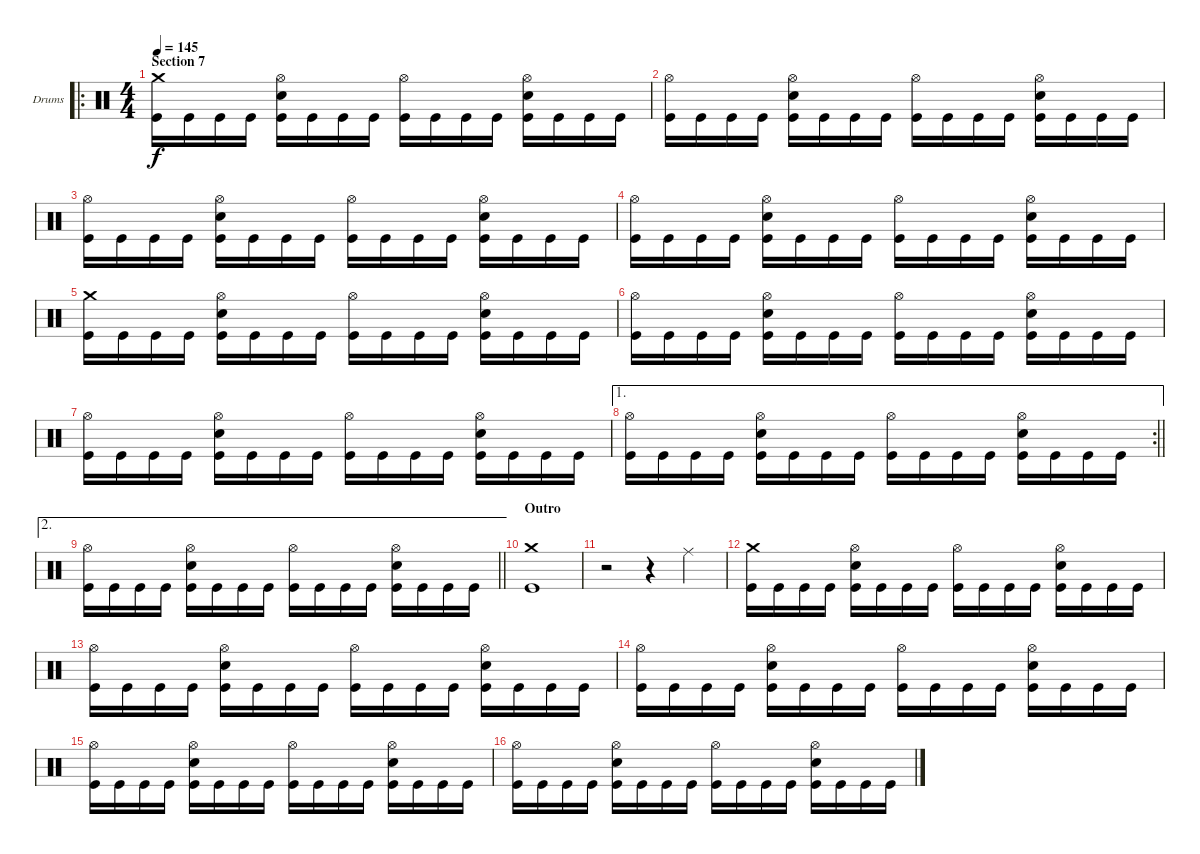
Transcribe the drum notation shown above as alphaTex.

\defaultSystemsLayout 4
\bracketExtendMode groupsimilarinstruments
\firstSystemTrackNameOrientation horizontal
\otherSystemsTrackNameOrientation horizontal
\track ("Drums" "Drums") {instrument percussion}
\staff {score}
\articulation defaults
\ro
\ts (4 4)
\section ("" "Section 7")
\tempo 145
\clef neutral
\ks c
("Kick (hit)" "Crash medium (hit)").16{dy f} "Kick (hit)".16 "Kick (hit)".16 "Kick (hit)".16 ("Snare (hit) 2" "Hi-Hat (open)" "Kick (hit)").16 "Kick (hit)".16 "Kick (hit)".16 "Kick (hit)".16 ("Kick (hit)" "Hi-Hat (open)").16 "Kick (hit)".16 "Kick (hit)".16 "Kick (hit)".16 ("Snare (hit) 2" "Hi-Hat (open)" "Kick (hit)").16 "Kick (hit)".16 "Kick (hit)".16 "Kick (hit)".16 |
("Kick (hit)" "Hi-Hat (open)").16 "Kick (hit)".16 "Kick (hit)".16 "Kick (hit)".16 ("Snare (hit) 2" "Hi-Hat (open)" "Kick (hit)").16 "Kick (hit)".16 "Kick (hit)".16 "Kick (hit)".16 ("Kick (hit)" "Hi-Hat (open)").16 "Kick (hit)".16 "Kick (hit)".16 "Kick (hit)".16 ("Snare (hit) 2" "Hi-Hat (open)" "Kick (hit)").16 "Kick (hit)".16 "Kick (hit)".16 "Kick (hit)".16 |
("Kick (hit)" "Hi-Hat (open)").16 "Kick (hit)".16 "Kick (hit)".16 "Kick (hit)".16 ("Snare (hit) 2" "Hi-Hat (open)" "Kick (hit)").16 "Kick (hit)".16 "Kick (hit)".16 "Kick (hit)".16 ("Kick (hit)" "Hi-Hat (open)").16 "Kick (hit)".16 "Kick (hit)".16 "Kick (hit)".16 ("Snare (hit) 2" "Hi-Hat (open)" "Kick (hit)").16 "Kick (hit)".16 "Kick (hit)".16 "Kick (hit)".16 |
("Kick (hit)" "Hi-Hat (open)").16 "Kick (hit)".16 "Kick (hit)".16 "Kick (hit)".16 ("Snare (hit) 2" "Hi-Hat (open)" "Kick (hit)").16 "Kick (hit)".16 "Kick (hit)".16 "Kick (hit)".16 ("Kick (hit)" "Hi-Hat (open)").16 "Kick (hit)".16 "Kick (hit)".16 "Kick (hit)".16 ("Snare (hit) 2" "Hi-Hat (open)" "Kick (hit)").16 "Kick (hit)".16 "Kick (hit)".16 "Kick (hit)".16 |
("Kick (hit)" "Crash medium (hit)").16 "Kick (hit)".16 "Kick (hit)".16 "Kick (hit)".16 ("Snare (hit) 2" "Hi-Hat (open)" "Kick (hit)").16 "Kick (hit)".16 "Kick (hit)".16 "Kick (hit)".16 ("Kick (hit)" "Hi-Hat (open)").16 "Kick (hit)".16 "Kick (hit)".16 "Kick (hit)".16 ("Snare (hit) 2" "Hi-Hat (open)" "Kick (hit)").16 "Kick (hit)".16 "Kick (hit)".16 "Kick (hit)".16 |
("Kick (hit)" "Hi-Hat (open)").16 "Kick (hit)".16 "Kick (hit)".16 "Kick (hit)".16 ("Snare (hit) 2" "Hi-Hat (open)" "Kick (hit)").16 "Kick (hit)".16 "Kick (hit)".16 "Kick (hit)".16 ("Kick (hit)" "Hi-Hat (open)").16 "Kick (hit)".16 "Kick (hit)".16 "Kick (hit)".16 ("Snare (hit) 2" "Hi-Hat (open)" "Kick (hit)").16 "Kick (hit)".16 "Kick (hit)".16 "Kick (hit)".16 |
("Kick (hit)" "Hi-Hat (open)").16 "Kick (hit)".16 "Kick (hit)".16 "Kick (hit)".16 ("Snare (hit) 2" "Hi-Hat (open)" "Kick (hit)").16 "Kick (hit)".16 "Kick (hit)".16 "Kick (hit)".16 ("Kick (hit)" "Hi-Hat (open)").16 "Kick (hit)".16 "Kick (hit)".16 "Kick (hit)".16 ("Snare (hit) 2" "Hi-Hat (open)" "Kick (hit)").16 "Kick (hit)".16 "Kick (hit)".16 "Kick (hit)".16 |
\ae 1
\rc 2
\barLineRight lightlight
("Kick (hit)" "Hi-Hat (open)").16 "Kick (hit)".16 "Kick (hit)".16 "Kick (hit)".16 ("Snare (hit) 2" "Hi-Hat (open)" "Kick (hit)").16 "Kick (hit)".16 "Kick (hit)".16 "Kick (hit)".16 ("Kick (hit)" "Hi-Hat (open)").16 "Kick (hit)".16 "Kick (hit)".16 "Kick (hit)".16 ("Snare (hit) 2" "Hi-Hat (open)" "Kick (hit)").16 "Kick (hit)".16 "Kick (hit)".16 "Kick (hit)".16 |
\ae 2
\barLineRight lightlight
("Kick (hit)" "Hi-Hat (open)").16 "Kick (hit)".16 "Kick (hit)".16 "Kick (hit)".16 ("Snare (hit) 2" "Hi-Hat (open)" "Kick (hit)").16 "Kick (hit)".16 "Kick (hit)".16 "Kick (hit)".16 ("Kick (hit)" "Hi-Hat (open)").16 "Kick (hit)".16 "Kick (hit)".16 "Kick (hit)".16 ("Snare (hit) 2" "Hi-Hat (open)" "Kick (hit)").16 "Kick (hit)".16 "Kick (hit)".16 "Kick (hit)".16 |
\section ("" "Outro")
("Kick (hit)" "Crash medium (hit)").1 |
r.2 r.4 "Ride (middle)".4 |
("Kick (hit)" "Crash medium (hit)").16 "Kick (hit)".16 "Kick (hit)".16 "Kick (hit)".16 ("Snare (hit) 2" "Hi-Hat (open)" "Kick (hit)").16 "Kick (hit)".16 "Kick (hit)".16 "Kick (hit)".16 ("Kick (hit)" "Hi-Hat (open)").16 "Kick (hit)".16 "Kick (hit)".16 "Kick (hit)".16 ("Snare (hit) 2" "Hi-Hat (open)" "Kick (hit)").16 "Kick (hit)".16 "Kick (hit)".16 "Kick (hit)".16 |
("Kick (hit)" "Hi-Hat (open)").16 "Kick (hit)".16 "Kick (hit)".16 "Kick (hit)".16 ("Snare (hit) 2" "Hi-Hat (open)" "Kick (hit)").16 "Kick (hit)".16 "Kick (hit)".16 "Kick (hit)".16 ("Kick (hit)" "Hi-Hat (open)").16 "Kick (hit)".16 "Kick (hit)".16 "Kick (hit)".16 ("Snare (hit) 2" "Hi-Hat (open)" "Kick (hit)").16 "Kick (hit)".16 "Kick (hit)".16 "Kick (hit)".16 |
("Kick (hit)" "Hi-Hat (open)").16 "Kick (hit)".16 "Kick (hit)".16 "Kick (hit)".16 ("Snare (hit) 2" "Hi-Hat (open)" "Kick (hit)").16 "Kick (hit)".16 "Kick (hit)".16 "Kick (hit)".16 ("Kick (hit)" "Hi-Hat (open)").16 "Kick (hit)".16 "Kick (hit)".16 "Kick (hit)".16 ("Snare (hit) 2" "Hi-Hat (open)" "Kick (hit)").16 "Kick (hit)".16 "Kick (hit)".16 "Kick (hit)".16 |
("Kick (hit)" "Hi-Hat (open)").16 "Kick (hit)".16 "Kick (hit)".16 "Kick (hit)".16 ("Snare (hit) 2" "Hi-Hat (open)" "Kick (hit)").16 "Kick (hit)".16 "Kick (hit)".16 "Kick (hit)".16 ("Kick (hit)" "Hi-Hat (open)").16 "Kick (hit)".16 "Kick (hit)".16 "Kick (hit)".16 ("Snare (hit) 2" "Hi-Hat (open)" "Kick (hit)").16 "Kick (hit)".16 "Kick (hit)".16 "Kick (hit)".16 |
("Kick (hit)" "Hi-Hat (open)").16 "Kick (hit)".16 "Kick (hit)".16 "Kick (hit)".16 ("Snare (hit) 2" "Hi-Hat (open)" "Kick (hit)").16 "Kick (hit)".16 "Kick (hit)".16 "Kick (hit)".16 ("Kick (hit)" "Hi-Hat (open)").16 "Kick (hit)".16 "Kick (hit)".16 "Kick (hit)".16 ("Snare (hit) 2" "Hi-Hat (open)" "Kick (hit)").16 "Kick (hit)".16 "Kick (hit)".16 "Kick (hit)".16
